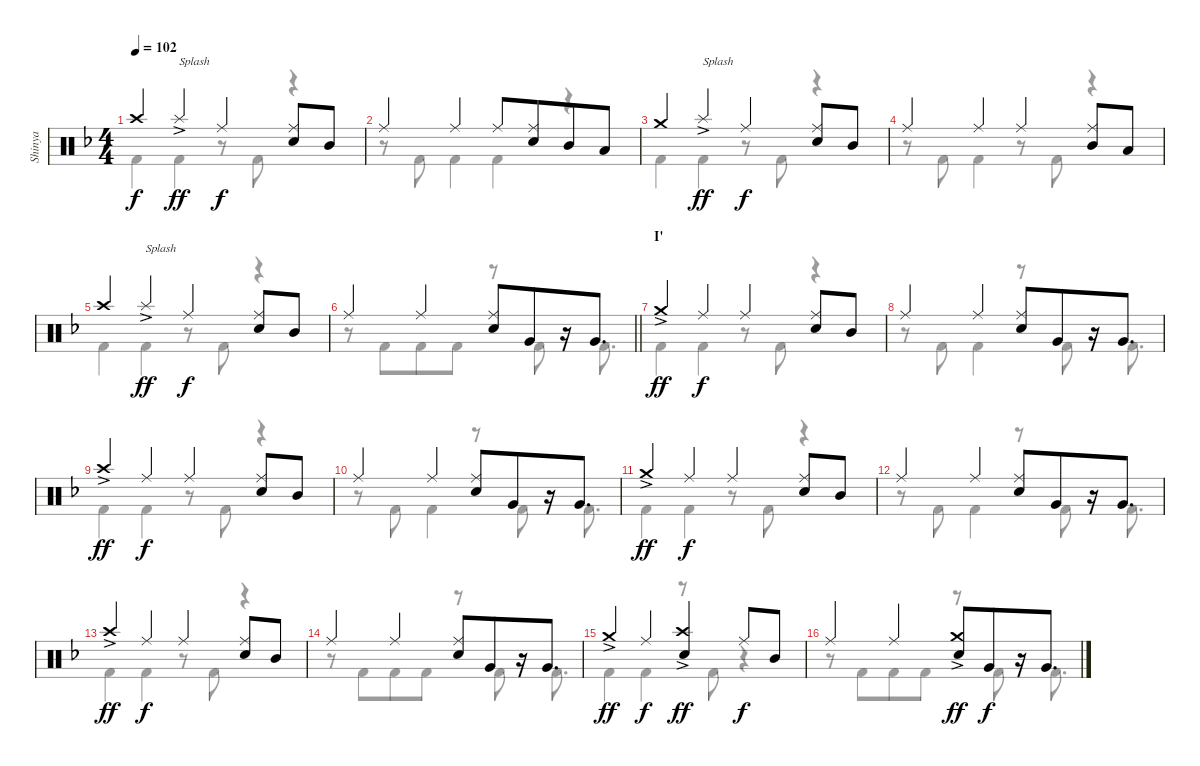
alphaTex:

\track ("Shinya" "Shinya") {mute instrument percussion}
\staff {score}
\articulation defaults
\voice
\ts (4 4)
\tempo 102
\clef neutral
\ks f "Crash high (hit)".4{dy f} "Splash (hit)"{ac}.4{txt "Splash" dy ff} "Ride (middle)".4{dy f beam merge}
("Ride (middle)" "Snare (hit) 2").8 "Mid Tom (hit)".8 |
"Ride (middle)".4 "Ride (middle)".4 "Ride (middle)".8 ("Ride (middle)" "Snare (hit) 2").8{beam merge} "Mid Tom (hit)".8 "Low Tom (hit)".8 |
"Crash medium (hit)".4 "Splash (hit)"{ac}.4{txt "Splash" dy ff} "Ride (middle)".4{dy f beam merge} ("Ride (middle)" "Snare (hit) 2").8 "Mid Tom (hit)".8 |
"Ride (middle)".4 "Ride (middle)".4 "Ride (middle)".4{beam merge} ("Ride (middle)" "Mid Tom (hit)").8 "Low Tom (hit)".8 |
"Crash high (hit)".4 "Splash (hit)"{ac}.4{txt "Splash" dy ff} "Ride (middle)".4{dy f beam merge} ("Ride (middle)" "Snare (hit) 2").8 "Mid Tom (hit)".8 |
\barLineRight lightlight "Ride (middle)".4 "Ride (middle)".4
("Ride (middle)" "Snare (hit) 2").8 "Very Low Tom (hit)".8{beam merge} r.16 "Very Low Tom (hit)".8{d} |
\section ("" "I'")
"Crash medium (hit)"{ac}.4{dy ff beam merge} "Ride (middle)".4{dy f} "Ride (middle)".4{beam merge} ("Ride (middle)" "Snare (hit) 2").8 "Mid Tom (hit)".8 |
"Ride (middle)".4 "Ride (middle)".4{beam merge} ("Ride (middle)" "Snare (hit) 2").8 "Very Low Tom (hit)".8{beam merge} r.16 "Very Low Tom (hit)".8{d} |
"Crash high (hit)"{ac}.4{dy ff beam merge} "Ride (middle)".4{dy f} "Ride (middle)".4{beam merge} ("Ride (middle)" "Snare (hit) 2").8 "Mid Tom (hit)".8 |
"Ride (middle)".4 "Ride (middle)".4{beam merge} ("Ride (middle)" "Snare (hit) 2").8 "Very Low Tom (hit)".8{beam merge} r.16 "Very Low Tom (hit)".8{d} |
"Crash medium (hit)"{ac}.4{dy ff beam merge} "Ride (middle)".4{dy f} "Ride (middle)".4{beam merge} ("Ride (middle)" "Snare (hit) 2").8 "Mid Tom (hit)".8 |
"Ride (middle)".4 "Ride (middle)".4{beam merge} ("Ride (middle)" "Snare (hit) 2").8 "Very Low Tom (hit)".8{beam merge} r.16 "Very Low Tom (hit)".8{d} |
"Crash high (hit)"{ac}.4{dy ff} "Ride (middle)".4{dy f} "Ride (middle)".4{beam merge} ("Ride (middle)" "Snare (hit) 2").8 "Mid Tom (hit)".8 |
"Ride (middle)".4{beam merge} "Ride (middle)".4{beam merge} ("Ride (middle)" "Snare (hit) 2").8 "Very Low Tom (hit)".8{beam merge} r.16 "Very Low Tom (hit)".8{d} |
"Crash medium (hit)"{ac}.4{dy ff} "Ride (middle)".4{dy f} ("Crash high (hit)"{ac} "Snare (hit) 2").4{dy ff beam merge} "Ride (middle)".8{dy f} "Mid Tom (hit)".8 |
"Ride (middle)".4{beam merge} "Ride (middle)".4{beam merge} ("Crash medium (hit)"{ac} "Snare (hit) 2").8{dy ff} "Very Low Tom (hit)".8{dy f beam merge} r.16 "Very Low Tom (hit)".8{d}
\voice
\clef neutral
\ottava regular
\simile none
\ks f "Kick (hit) 2".4{dy f} "Kick (hit) 2".4
r.8 "Kick (hit) 2".8 r.4 |
r.8 "Kick (hit) 2".8 "Kick (hit) 2".4 "Kick (hit) 2".4 r.4 |
"Kick (hit) 2".4 "Kick (hit) 2".4 r.8 "Kick (hit) 2".8 r.4 |
r.8 "Kick (hit) 2".8 "Kick (hit) 2".4 r.8 "Kick (hit) 2".8 r.4 |
"Kick (hit) 2".4 "Kick (hit) 2".4 r.8 "Kick (hit) 2".8 r.4 |
\barLineRight lightlight
r.8 "Kick (hit) 2".8{beam merge} "Kick (hit) 2".8 "Kick (hit) 2".8 r.8 "Kick (hit) 2".8 r.16 "Kick (hit) 2".8{d} |
"Kick (hit) 2".4 "Kick (hit) 2".4 r.8 "Kick (hit) 2".8 r.4 |
r.8 "Kick (hit) 2".8 "Kick (hit) 2".4 r.8 "Kick (hit) 2".8 r.16 "Kick (hit) 2".8{d} |
"Kick (hit) 2".4 "Kick (hit) 2".4 r.8 "Kick (hit) 2".8 r.4 |
r.8 "Kick (hit) 2".8 "Kick (hit) 2".4 r.8 "Kick (hit) 2".8 r.16 "Kick (hit) 2".8{d} |
"Kick (hit) 2".4 "Kick (hit) 2".4 r.8 "Kick (hit) 2".8 r.4 |
r.8 "Kick (hit) 2".8 "Kick (hit) 2".4 r.8 "Kick (hit) 2".8 r.16 "Kick (hit) 2".8{d} |
"Kick (hit) 2".4 "Kick (hit) 2".4 r.8 "Kick (hit) 2".8 r.4 |
r.8 "Kick (hit) 2".8{beam merge} "Kick (hit) 2".8 "Kick (hit) 2".8 r.8 "Kick (hit) 2".8 r.16 "Kick (hit) 2".8{d} |
"Kick (hit) 2".4 "Kick (hit) 2".4 r.8 "Kick (hit) 2".8 r.4 |
r.8 "Kick (hit) 2".8{beam merge} "Kick (hit) 2".8 "Kick (hit) 2".8 r.8 "Kick (hit) 2".8 r.16 "Kick (hit) 2".8{d}
